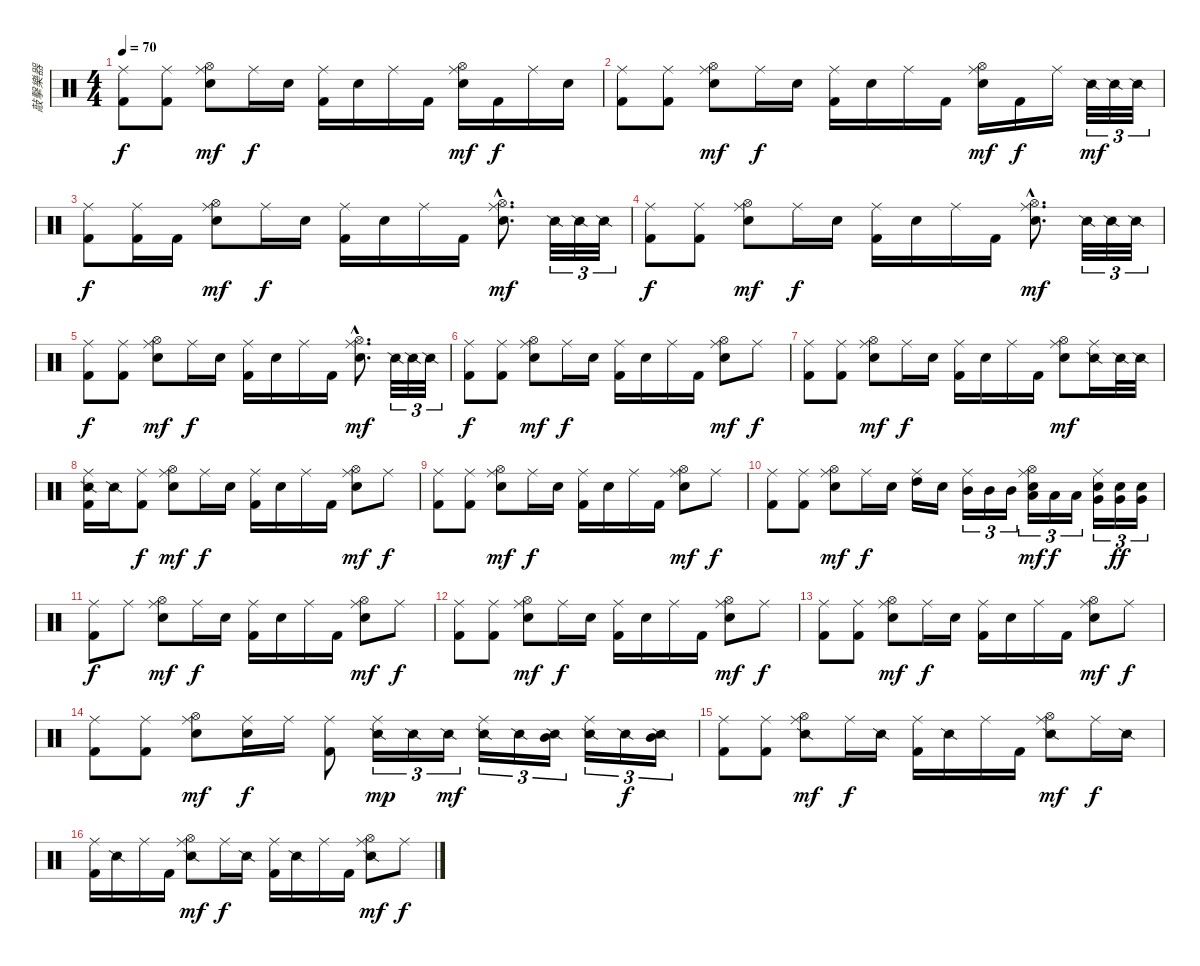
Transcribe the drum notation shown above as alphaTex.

\track ("敲擊樂器" "敲擊樂器") {instrument percussion}
\staff {score}
\articulation defaults
\ts (4 4)
\tempo 70
\clef neutral
\ks c
("Ride (middle)" "Kick (hit) 2").8{dy f} ("Ride (middle)" "Kick (hit) 2").8 ("Ride (middle)" "Hi-Hat (open)" "Snare (hit) 2").8{dy mf} "Ride (middle)".16{dy f} "Snare (hit) 2".16 ("Ride (middle)" "Kick (hit) 2").16 "Snare (hit) 2".16 "Ride (middle)".16 "Kick (hit) 2".16 ("Ride (middle)" "Hi-Hat (open)" "Snare (hit) 2").16{dy mf} "Kick (hit) 2".16{dy f} "Ride (middle)".16 "Snare (hit) 2".16 |
("Ride (middle)" "Kick (hit) 2").8 ("Ride (middle)" "Kick (hit) 2").8 ("Ride (middle)" "Hi-Hat (open)" "Snare (hit) 2").8{dy mf} "Ride (middle)".16{dy f} "Snare (hit) 2".16 ("Ride (middle)" "Kick (hit) 2").16 "Snare (hit) 2".16 "Ride (middle)".16 "Kick (hit) 2".16 ("Ride (middle)" "Hi-Hat (open)" "Snare (hit) 2").16{dy mf} "Kick (hit) 2".16{dy f} "Ride (middle)".16 "Snare (side stick) 2".32{tu (3 2) dy mf} "Snare (side stick) 2".32{tu (3 2)} "Snare (side stick) 2".32{tu (3 2)} |
("Ride (middle)" "Kick (hit) 2").8{dy f} ("Ride (middle)" "Kick (hit) 2").16 "Kick (hit) 2".16 ("Ride (middle)" "Hi-Hat (open)" "Snare (hit) 2").8{dy mf} "Ride (middle)".16{dy f} "Snare (hit) 2".16 ("Ride (middle)" "Kick (hit) 2").16 "Snare (hit) 2".16 "Ride (middle)".16 "Kick (hit) 2".16 ("Ride (middle)"{hac} "Hi-Hat (open)"{hac} "Snare (hit) 2"{hac}).8{d dy mf} "Snare (side stick) 2".32{tu (3 2)} "Snare (side stick) 2".32{tu (3 2)} "Snare (side stick) 2".32{tu (3 2)} |
("Ride (middle)" "Kick (hit) 2").8{dy f} ("Ride (middle)" "Kick (hit) 2").8 ("Ride (middle)" "Hi-Hat (open)" "Snare (hit) 2").8{dy mf} "Ride (middle)".16{dy f} "Snare (hit) 2".16 ("Ride (middle)" "Kick (hit) 2").16 "Snare (hit) 2".16 "Ride (middle)".16 "Kick (hit) 2".16 ("Ride (middle)"{hac} "Hi-Hat (open)"{hac} "Snare (hit) 2"{hac}).8{d dy mf} "Snare (side stick) 2".32{tu (3 2)} "Snare (side stick) 2".32{tu (3 2)} "Snare (side stick) 2".32{tu (3 2)} |
("Ride (middle)" "Kick (hit) 2").8{dy f} ("Ride (middle)" "Kick (hit) 2").8 ("Ride (middle)" "Hi-Hat (open)" "Snare (hit) 2").8{dy mf} "Ride (middle)".16{dy f} "Snare (hit) 2".16 ("Ride (middle)" "Kick (hit) 2").16 "Snare (hit) 2".16 "Ride (middle)".16 "Kick (hit) 2".16 ("Ride (middle)"{hac} "Hi-Hat (open)"{hac} "Snare (hit) 2"{hac}).8{d dy mf} "Snare (side stick) 2".32{tu (3 2)} "Snare (side stick) 2".32{tu (3 2)} "Snare (side stick) 2".32{tu (3 2)} |
("Ride (middle)" "Kick (hit) 2").8{dy f} ("Ride (middle)" "Kick (hit) 2").8 ("Ride (middle)" "Hi-Hat (open)" "Snare (hit) 2").8{dy mf} "Ride (middle)".16{dy f} "Snare (hit) 2".16 ("Ride (middle)" "Kick (hit) 2").16 "Snare (hit) 2".16 "Ride (middle)".16 "Kick (hit) 2".16 ("Ride (middle)" "Hi-Hat (open)" "Snare (hit) 2").8{dy mf} "Ride (middle)".8{dy f} |
("Ride (middle)" "Kick (hit) 2").8 ("Ride (middle)" "Kick (hit) 2").8 ("Ride (middle)" "Hi-Hat (open)" "Snare (hit) 2").8{dy mf} "Ride (middle)".16{dy f} "Snare (hit) 2".16 ("Ride (middle)" "Kick (hit) 2").16 "Snare (hit) 2".16 "Ride (middle)".16 "Kick (hit) 2".16 ("Ride (middle)" "Hi-Hat (open)" "Snare (hit) 2").8{dy mf} ("Ride (middle)" "Snare (side stick) 2").16 "Snare (side stick) 2".32 "Snare (side stick) 2".32 |
("Ride (middle)" "Snare (side stick) 2" "Kick (hit) 2").16 "Snare (side stick) 2".16 ("Ride (middle)" "Kick (hit) 2").8{dy f} ("Ride (middle)" "Hi-Hat (open)" "Snare (hit) 2").8{dy mf} "Ride (middle)".16{dy f} "Snare (hit) 2".16 ("Ride (middle)" "Kick (hit) 2").16 "Snare (hit) 2".16 "Ride (middle)".16 "Kick (hit) 2".16 ("Ride (middle)" "Hi-Hat (open)" "Snare (hit) 2").8{dy mf} "Ride (middle)".8{dy f} |
("Ride (middle)" "Kick (hit) 2").8 ("Ride (middle)" "Kick (hit) 2").8 ("Ride (middle)" "Hi-Hat (open)" "Snare (hit) 2").8{dy mf} "Ride (middle)".16{dy f} "Snare (hit) 2".16 ("Ride (middle)" "Kick (hit) 2").16 "Snare (hit) 2".16 "Ride (middle)".16 "Kick (hit) 2".16 ("Ride (middle)" "Hi-Hat (open)" "Snare (hit) 2").8{dy mf} "Ride (middle)".8{dy f} |
("Ride (middle)" "Kick (hit) 2").8 ("Ride (middle)" "Kick (hit) 2").8 ("Ride (middle)" "Hi-Hat (open)" "Snare (hit) 2").8{dy mf} "Ride (middle)".16{dy f} "Snare (hit) 2".16 ("Ride (middle)" "High Tom (hit)").16 "Snare (hit) 2".16 ("Ride (middle)" "Mid Tom (hit)").16{tu (3 2)} "Mid Tom (hit)".16{tu (3 2)} "Mid Tom (hit)".16{tu (3 2)} ("Ride (middle)" "Hi-Hat (open)" "Snare (hit) 2" "Low Tom (hit)").16{tu (3 2) dy mf} "Low Tom (hit)".16{tu (3 2) dy f} "Low Tom (hit)".16{tu (3 2)} ("Ride (middle)" "Snare (hit) 2" "Very Low Tom (hit)").16{tu (3 2)} ("Snare (hit) 2" "Very Low Tom (hit)").16{tu (3 2) dy ff} ("Snare (hit) 2" "Very Low Tom (hit)").16{tu (3 2)} |
("Ride (middle)" "Kick (hit) 2").8{dy f} "Ride (middle)".8 ("Ride (middle)" "Hi-Hat (open)" "Snare (hit) 2").8{dy mf} "Ride (middle)".16{dy f} "Snare (hit) 2".16 ("Ride (middle)" "Kick (hit) 2").16 "Snare (hit) 2".16 "Ride (middle)".16 "Kick (hit) 2".16 ("Ride (middle)" "Hi-Hat (open)" "Snare (hit) 2").8{dy mf} "Ride (middle)".8{dy f} |
("Ride (middle)" "Kick (hit) 2").8 ("Ride (middle)" "Kick (hit) 2").8 ("Ride (middle)" "Hi-Hat (open)" "Snare (hit) 2").8{dy mf} "Ride (middle)".16{dy f} "Snare (hit) 2".16 ("Ride (middle)" "Kick (hit) 2").16 "Snare (hit) 2".16 "Ride (middle)".16 "Kick (hit) 2".16 ("Ride (middle)" "Hi-Hat (open)" "Snare (hit) 2").8{dy mf} "Ride (middle)".8{dy f} |
("Ride (middle)" "Kick (hit) 2").8 ("Ride (middle)" "Kick (hit) 2").8 ("Ride (middle)" "Hi-Hat (open)" "Snare (hit) 2").8{dy mf} "Ride (middle)".16{dy f} "Snare (hit) 2".16 ("Ride (middle)" "Kick (hit) 2").16 "Snare (hit) 2".16 "Ride (middle)".16 "Kick (hit) 2".16 ("Ride (middle)" "Hi-Hat (open)" "Snare (hit) 2").8{dy mf} "Ride (middle)".8{dy f} |
("Ride (middle)" "Kick (hit) 2").8 ("Ride (middle)" "Kick (hit) 2").8 ("Ride (middle)" "Hi-Hat (open)" "Snare (hit) 2").8{dy mf} ("Ride (middle)" "Snare (hit) 2").16{dy f} "Ride (middle)".16 ("Ride (middle)" "Kick (hit) 2").8 ("Ride (middle)" "Snare (side stick) 2").16{tu (3 2) dy mp} "Snare (side stick) 2".16{tu (3 2)} "Snare (side stick) 2".16{tu (3 2) dy mf} ("Ride (middle)" "Snare (side stick) 2").16{tu (3 2)} "Snare (side stick) 2".16{tu (3 2)} ("Snare (side stick) 2" "Mid Tom (hit)").16{tu (3 2)} ("Ride (middle)" "Snare (side stick) 2").16{tu (3 2)} "Snare (side stick) 2".16{tu (3 2) dy f} ("Snare (side stick) 2" "Mid Tom (hit)").16{tu (3 2)} |
("Ride (middle)" "Kick (hit) 2").8 ("Ride (middle)" "Kick (hit) 2").8 ("Ride (middle)" "Hi-Hat (open)" "Snare (side stick) 2").8{dy mf} "Ride (middle)".16{dy f} "Snare (side stick) 2".16 ("Ride (middle)" "Kick (hit) 2").16 "Snare (side stick) 2".16 "Ride (middle)".16 "Kick (hit) 2".16 ("Ride (middle)" "Hi-Hat (open)" "Snare (side stick) 2").8{dy mf} "Ride (middle)".16{dy f} "Snare (side stick) 2".16 |
("Ride (middle)" "Kick (hit) 2").16 "Snare (side stick) 2".16 "Ride (middle)".16 "Kick (hit) 2".16 ("Ride (middle)" "Hi-Hat (open)" "Snare (side stick) 2").8{dy mf} "Ride (middle)".16{dy f} "Snare (side stick) 2".16 ("Ride (middle)" "Kick (hit) 2").16 "Snare (side stick) 2".16 "Ride (middle)".16 "Kick (hit) 2".16 ("Ride (middle)" "Hi-Hat (open)" "Snare (side stick) 2").8{dy mf} "Ride (middle)".8{dy f}
